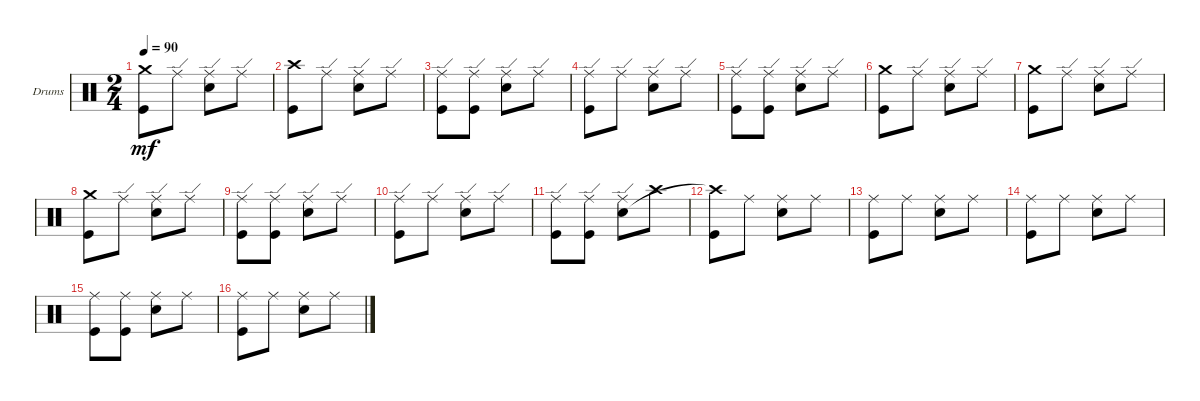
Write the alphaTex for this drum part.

\bracketExtendMode groupsimilarinstruments
\firstSystemTrackNameOrientation horizontal
\otherSystemsTrackNameOrientation horizontal
\track ("Drumkit" "Drums") {instrument percussion}
\staff {score}
\articulation defaults
\ts (2 4)
\tempo 90
\clef neutral
\scale
0.333333
\ks c
("Kick (hit)" "Crash medium (hit)").8{dy mf} "Ride (edge)".8 ("Ride (edge)" "Snare (hit) 2").8 "Ride (edge)".8 |
\scale
0.333333 ("Crash high (hit)" "Kick (hit)").8 "Ride (edge)".8 ("Ride (edge)" "Snare (hit) 2").8 "Ride (edge)".8 |
\scale
0.333333 ("Ride (edge)" "Kick (hit)").8 ("Ride (edge)" "Kick (hit)").8 ("Ride (edge)" "Snare (hit) 2").8 "Ride (edge)".8 |
\scale
0.333333 ("Ride (edge)" "Kick (hit)").8 "Ride (edge)".8 ("Ride (edge)" "Snare (hit) 2").8 "Ride (edge)".8 |
\scale
0.333333 ("Ride (edge)" "Kick (hit)").8 ("Ride (edge)" "Kick (hit)").8 ("Ride (edge)" "Snare (hit) 2").8 "Ride (edge)".8 |
\scale
0.333333 ("Kick (hit)" "Crash medium (hit)").8 "Ride (edge)".8 ("Ride (edge)" "Snare (hit) 2").8 "Ride (edge)".8 |
\scale
0.333333 ("Kick (hit)" "Crash medium (hit)").8 "Ride (edge)".8 ("Ride (edge)" "Snare (hit) 2").8 "Ride (edge)".8 |
\scale
0.333333 ("Kick (hit)" "Crash medium (hit)").8 "Ride (edge)".8 ("Ride (edge)" "Snare (hit) 2").8 "Ride (edge)".8 |
\scale
0.333333 ("Ride (edge)" "Kick (hit)").8 ("Ride (edge)" "Kick (hit)").8 ("Ride (edge)" "Snare (hit) 2").8 "Ride (edge)".8 |
\scale
0.333333 ("Ride (edge)" "Kick (hit)").8 "Ride (edge)".8 ("Ride (edge)" "Snare (hit) 2").8 "Ride (edge)".8 |
\scale
0.333333 ("Ride (edge)" "Kick (hit)").8 ("Ride (edge)" "Kick (hit)").8 ("Ride (edge)" "Snare (hit) 2").8 "Crash high (hit)".8 |
\scale
0.333333 ("Kick (hit)" "Crash high (hit)"{t}).8 "Ride (middle)".8 ("Ride (middle)" "Snare (hit) 2").8 "Ride (middle)".8 |
\scale
0.333333 ("Ride (middle)" "Kick (hit)").8 "Ride (middle)".8 ("Ride (middle)" "Snare (hit) 2").8 "Ride (middle)".8 |
\scale
0.333333 ("Ride (middle)" "Kick (hit)").8 "Ride (middle)".8 ("Ride (middle)" "Snare (hit) 2").8 "Ride (middle)".8 |
\scale
0.333333 ("Ride (middle)" "Kick (hit)").8 ("Ride (middle)" "Kick (hit)").8 ("Ride (middle)" "Snare (hit) 2").8 "Ride (middle)".8 |
\scale
0.333333 ("Ride (middle)" "Kick (hit)").8 "Ride (middle)".8 ("Ride (middle)" "Snare (hit) 2").8 "Ride (middle)".8
